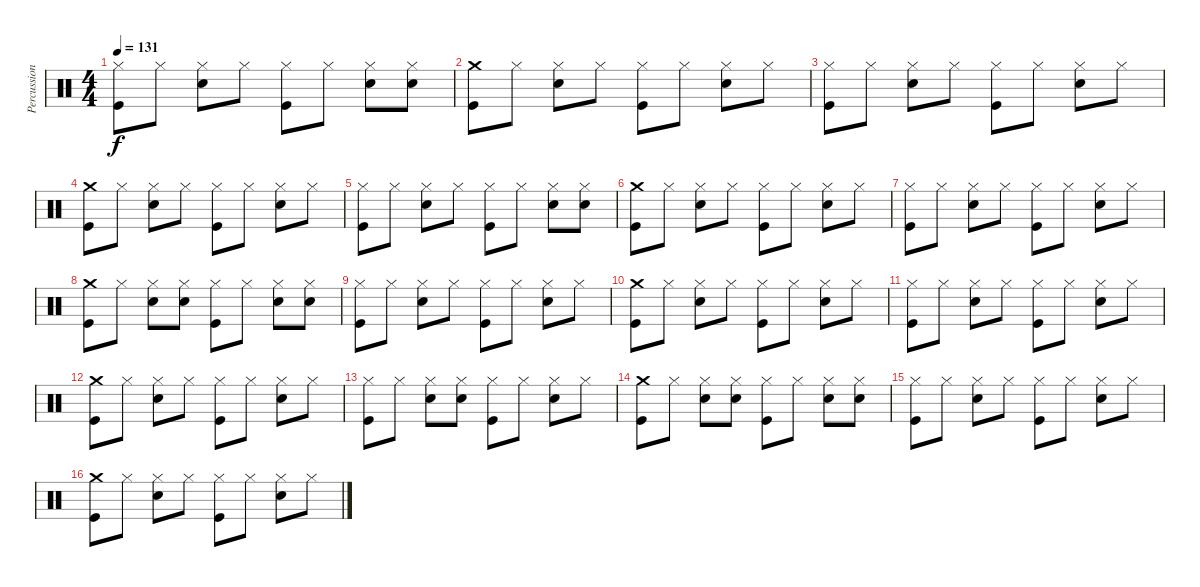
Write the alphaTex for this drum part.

\track ("Percussions" "Percussion") {instrument percussion}
\staff {score}
\articulation defaults
\ts (4 4)
\tempo 131
\clef neutral
\ks c
("Hi-Hat (closed)" "Kick (hit)").8{dy f} "Hi-Hat (closed)".8 ("Hi-Hat (closed)" "Snare (hit) 2").8 "Hi-Hat (closed)".8 ("Hi-Hat (closed)" "Kick (hit)").8 "Hi-Hat (closed)".8 ("Hi-Hat (closed)" "Snare (hit) 2").8 ("Hi-Hat (closed)" "Snare (hit) 2").8 |
("Crash medium (hit)" "Kick (hit)").8 "Hi-Hat (closed)".8 ("Hi-Hat (closed)" "Snare (hit) 2").8 "Hi-Hat (closed)".8 ("Hi-Hat (closed)" "Kick (hit)").8 "Hi-Hat (closed)".8 ("Hi-Hat (closed)" "Snare (hit) 2").8 "Hi-Hat (closed)".8 |
("Hi-Hat (closed)" "Kick (hit)").8 "Hi-Hat (closed)".8 ("Hi-Hat (closed)" "Snare (hit) 2").8 "Hi-Hat (closed)".8 ("Hi-Hat (closed)" "Kick (hit)").8 "Hi-Hat (closed)".8 ("Hi-Hat (closed)" "Snare (hit) 2").8 "Hi-Hat (closed)".8 |
("Crash medium (hit)" "Kick (hit)").8 "Hi-Hat (closed)".8 ("Hi-Hat (closed)" "Snare (hit) 2").8 "Hi-Hat (closed)".8 ("Hi-Hat (closed)" "Kick (hit)").8 "Hi-Hat (closed)".8 ("Hi-Hat (closed)" "Snare (hit) 2").8 "Hi-Hat (closed)".8 |
("Hi-Hat (closed)" "Kick (hit)").8 "Hi-Hat (closed)".8 ("Hi-Hat (closed)" "Snare (hit) 2").8 "Hi-Hat (closed)".8 ("Hi-Hat (closed)" "Kick (hit)").8 "Hi-Hat (closed)".8 ("Hi-Hat (closed)" "Snare (hit) 2").8 ("Hi-Hat (closed)" "Snare (hit) 2").8 |
("Crash medium (hit)" "Kick (hit)").8 "Hi-Hat (closed)".8 ("Hi-Hat (closed)" "Snare (hit) 2").8 "Hi-Hat (closed)".8 ("Hi-Hat (closed)" "Kick (hit)").8 "Hi-Hat (closed)".8 ("Hi-Hat (closed)" "Snare (hit) 2").8 "Hi-Hat (closed)".8 |
("Hi-Hat (closed)" "Kick (hit)").8 "Hi-Hat (closed)".8 ("Hi-Hat (closed)" "Snare (hit) 2").8 "Hi-Hat (closed)".8 ("Hi-Hat (closed)" "Kick (hit)").8 "Hi-Hat (closed)".8 ("Hi-Hat (closed)" "Snare (hit) 2").8 "Hi-Hat (closed)".8 |
("Crash medium (hit)" "Kick (hit)").8 "Hi-Hat (closed)".8 ("Hi-Hat (closed)" "Snare (hit) 2").8 ("Hi-Hat (closed)" "Snare (hit) 2").8 ("Hi-Hat (closed)" "Kick (hit)").8 "Hi-Hat (closed)".8 ("Hi-Hat (closed)" "Snare (hit) 2").8 ("Hi-Hat (closed)" "Snare (hit) 2").8 |
("Hi-Hat (closed)" "Kick (hit)").8 "Hi-Hat (closed)".8 ("Hi-Hat (closed)" "Snare (hit) 2").8 "Hi-Hat (closed)".8 ("Hi-Hat (closed)" "Kick (hit)").8 "Hi-Hat (closed)".8 ("Hi-Hat (closed)" "Snare (hit) 2").8 "Hi-Hat (closed)".8 |
("Crash medium (hit)" "Kick (hit)").8 "Hi-Hat (closed)".8 ("Hi-Hat (closed)" "Snare (hit) 2").8 "Hi-Hat (closed)".8 ("Hi-Hat (closed)" "Kick (hit)").8 "Hi-Hat (closed)".8 ("Hi-Hat (closed)" "Snare (hit) 2").8 "Hi-Hat (closed)".8 |
("Hi-Hat (closed)" "Kick (hit)").8 "Hi-Hat (closed)".8 ("Hi-Hat (closed)" "Snare (hit) 2").8 "Hi-Hat (closed)".8 ("Hi-Hat (closed)" "Kick (hit)").8 "Hi-Hat (closed)".8 ("Hi-Hat (closed)" "Snare (hit) 2").8 "Hi-Hat (closed)".8 |
("Crash medium (hit)" "Kick (hit)").8 "Hi-Hat (closed)".8 ("Hi-Hat (closed)" "Snare (hit) 2").8 "Hi-Hat (closed)".8 ("Hi-Hat (closed)" "Kick (hit)").8 "Hi-Hat (closed)".8 ("Hi-Hat (closed)" "Snare (hit) 2").8 "Hi-Hat (closed)".8 |
("Hi-Hat (closed)" "Kick (hit)").8 "Hi-Hat (closed)".8 ("Hi-Hat (closed)" "Snare (hit) 2").8 ("Hi-Hat (closed)" "Snare (hit) 2").8 ("Hi-Hat (closed)" "Kick (hit)").8 "Hi-Hat (closed)".8 ("Hi-Hat (closed)" "Snare (hit) 2").8 "Hi-Hat (closed)".8 |
("Crash medium (hit)" "Kick (hit)").8 "Hi-Hat (closed)".8 ("Hi-Hat (closed)" "Snare (hit) 2").8 ("Hi-Hat (closed)" "Snare (hit) 2").8 ("Hi-Hat (closed)" "Kick (hit)").8 "Hi-Hat (closed)".8 ("Hi-Hat (closed)" "Snare (hit) 2").8 ("Hi-Hat (closed)" "Snare (hit) 2").8 |
("Hi-Hat (closed)" "Kick (hit)").8 "Hi-Hat (closed)".8 ("Hi-Hat (closed)" "Snare (hit) 2").8 "Hi-Hat (closed)".8 ("Hi-Hat (closed)" "Kick (hit)").8 "Hi-Hat (closed)".8 ("Hi-Hat (closed)" "Snare (hit) 2").8 "Hi-Hat (closed)".8 |
("Crash medium (hit)" "Kick (hit)").8{volume 0} "Hi-Hat (closed)".8 ("Hi-Hat (closed)" "Snare (hit) 2").8 "Hi-Hat (closed)".8 ("Hi-Hat (closed)" "Kick (hit)").8 "Hi-Hat (closed)".8 ("Hi-Hat (closed)" "Snare (hit) 2").8 "Hi-Hat (closed)".8
